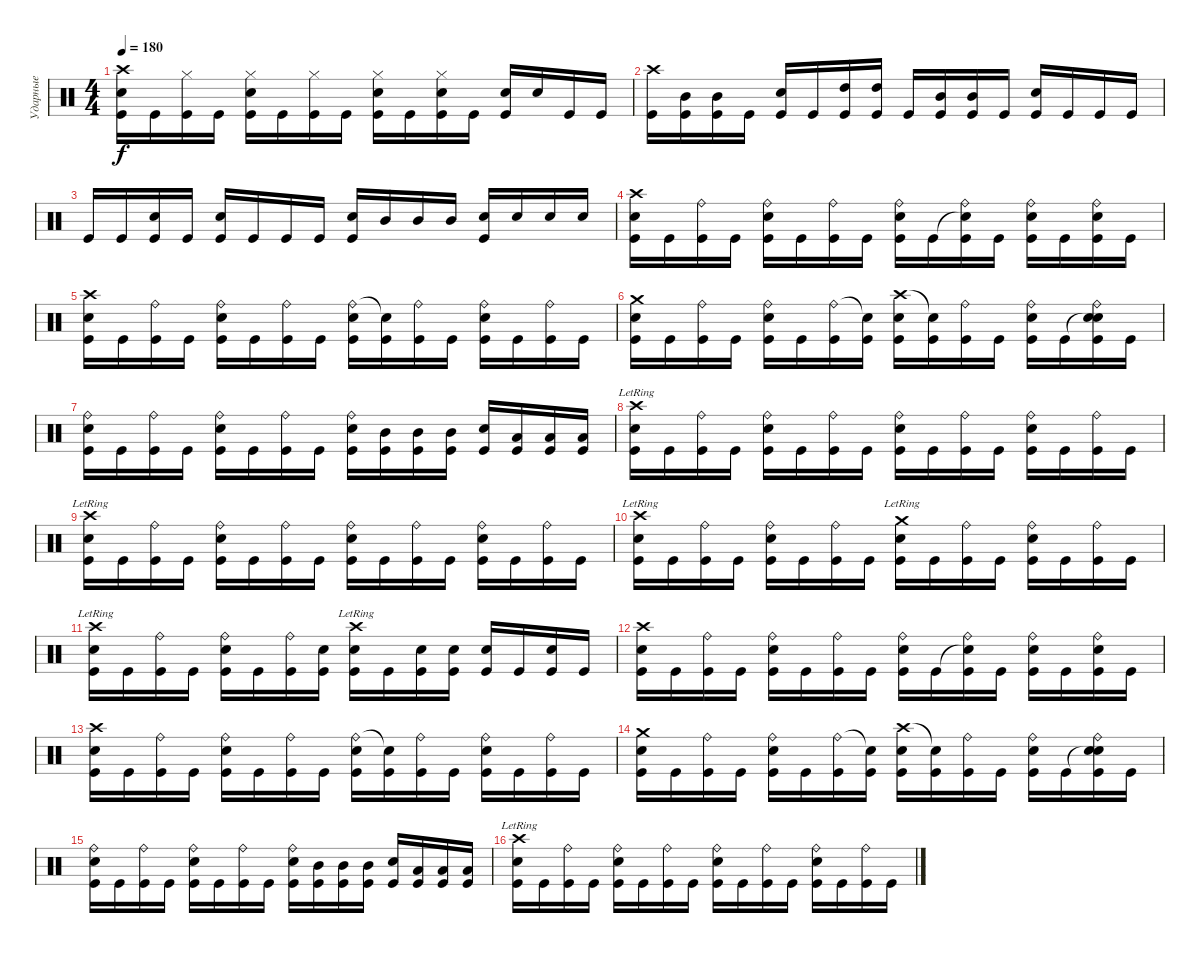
\track ("Ударные" "Ударные") {instrument percussion}
\staff {score}
\articulation defaults
\ts (4 4)
\tempo 180
\clef neutral
\ks c
("Crash high (hit)" "Electric Snare (hit)" "Kick (hit)").16{dy f} "Kick (hit)".16 ("Hi-Hat (closed)" "Kick (hit)").16 "Kick (hit)".16 ("Hi-Hat (closed)" "Electric Snare (hit)" "Kick (hit)").16 "Kick (hit)".16 ("Hi-Hat (closed)" "Kick (hit)").16 "Kick (hit)".16 ("Hi-Hat (closed)" "Electric Snare (hit)" "Kick (hit)").16 "Kick (hit)".16 ("Hi-Hat (closed)" "Electric Snare (hit)" "Kick (hit)").16 "Kick (hit)".16 ("Electric Snare (hit)" "Kick (hit)").16 "Electric Snare (hit)".16 "Kick (hit)".16 "Kick (hit)".16 |
("Crash high (hit)" "Kick (hit)").16 ("Mid Tom (hit)" "Kick (hit)").16 ("Mid Tom (hit)" "Kick (hit)").16 "Kick (hit)".16 ("Electric Snare (hit)" "Kick (hit)").16 "Kick (hit)".16 ("High Tom (hit)" "Kick (hit)").16 ("High Tom (hit)" "Kick (hit)").16 "Kick (hit)".16 ("Mid Tom (hit)" "Kick (hit)").16 ("Mid Tom (hit)" "Kick (hit)").16 "Kick (hit)".16 ("Electric Snare (hit)" "Kick (hit)").16 "Kick (hit)".16 "Kick (hit)".16 "Kick (hit)".16 |
"Kick (hit)".16 "Kick (hit)".16 ("Electric Snare (hit)" "Kick (hit)").16 "Kick (hit)".16 ("Electric Snare (hit)" "Kick (hit)").16 "Kick (hit)".16 "Kick (hit)".16 "Kick (hit)".16 ("Electric Snare (hit)" "Kick (hit)").16 "Mid Tom (hit)".16 "Mid Tom (hit)".16 "Mid Tom (hit)".16 ("Electric Snare (hit)" "Kick (hit)").16 "Electric Snare (hit)".16 "Electric Snare (hit)".16 "Electric Snare (hit)".16 |
("Crash high (hit)" "Electric Snare (hit)" "Kick (hit)").16 "Kick (hit)".16 ("Ride (bell)" "Kick (hit)").16 "Kick (hit)".16 ("Ride (bell)" "Electric Snare (hit)" "Kick (hit)").16 "Kick (hit)".16 ("Ride (bell)" "Kick (hit)").16 "Kick (hit)".16 ("Ride (bell)" "Electric Snare (hit)" "Kick (hit)").16 "Kick (hit)".16 ("Snare (hit)"{t} "Ride (bell)" "Kick (hit)").16 "Kick (hit)".16 ("Ride (bell)" "Electric Snare (hit)" "Kick (hit)").16 "Kick (hit)".16 ("Ride (bell)" "Electric Snare (hit)" "Kick (hit)").16 "Kick (hit)".16 |
("Crash high (hit)" "Electric Snare (hit)" "Kick (hit)").16 "Kick (hit)".16 ("Ride (bell)" "Kick (hit)").16 "Kick (hit)".16 ("Ride (bell)" "Electric Snare (hit)" "Kick (hit)").16 "Kick (hit)".16 ("Ride (bell)" "Kick (hit)").16 "Kick (hit)".16 ("Ride (bell)" "Electric Snare (hit)" "Kick (hit)").16 ("Snare (hit)"{t} "Kick (hit)").16 ("Ride (bell)" "Kick (hit)").16 "Kick (hit)".16 ("Ride (bell)" "Electric Snare (hit)" "Kick (hit)").16 "Kick (hit)".16 ("Ride (bell)" "Kick (hit)").16 "Kick (hit)".16 |
("Crash medium (hit)" "Electric Snare (hit)" "Kick (hit)").16 "Kick (hit)".16 ("Ride (bell)" "Kick (hit)").16 "Kick (hit)".16 ("Ride (bell)" "Electric Snare (hit)" "Kick (hit)").16 "Kick (hit)".16 ("Ride (bell)" "Kick (hit)").16 ("Snare (hit)"{t} "Kick (hit)").16 ("Crash high (hit)" "Electric Snare (hit)" "Kick (hit)").16 ("Snare (hit)"{t} "Kick (hit)").16 ("Ride (bell)" "Kick (hit)").16 "Kick (hit)".16 ("Ride (bell)" "Electric Snare (hit)" "Kick (hit)").16 "Kick (hit)".16 ("Snare (hit)"{t} "Ride (bell)" "Electric Snare (hit)" "Kick (hit)").16 "Kick (hit)".16 |
("Ride (bell)" "Electric Snare (hit)" "Kick (hit)").16 "Kick (hit)".16 ("Ride (bell)" "Kick (hit)").16 "Kick (hit)".16 ("Ride (bell)" "Electric Snare (hit)" "Kick (hit)").16 "Kick (hit)".16 ("Ride (bell)" "Kick (hit)").16 "Kick (hit)".16 ("Ride (bell)" "Electric Snare (hit)" "Kick (hit)").16 ("Mid Tom (hit)" "Kick (hit)").16 ("Mid Tom (hit)" "Kick (hit)").16 ("Mid Tom (hit)" "Kick (hit)").16 ("Electric Snare (hit)" "Kick (hit)").16 ("Low Tom (hit)" "Kick (hit)").16 ("Low Tom (hit)" "Kick (hit)").16 ("Low Tom (hit)" "Kick (hit)").16 |
("Crash high (hit)"{lr} "Electric Snare (hit)" "Kick (hit)").16 "Kick (hit)".16 ("Ride (bell)" "Kick (hit)").16 "Kick (hit)".16 ("Ride (bell)" "Electric Snare (hit)" "Kick (hit)").16 "Kick (hit)".16 ("Ride (bell)" "Kick (hit)").16 "Kick (hit)".16 ("Ride (bell)" "Electric Snare (hit)" "Kick (hit)").16 "Kick (hit)".16 ("Ride (bell)" "Kick (hit)").16 "Kick (hit)".16 ("Ride (bell)" "Electric Snare (hit)" "Kick (hit)").16 "Kick (hit)".16 ("Ride (bell)" "Kick (hit)").16 "Kick (hit)".16 |
("Crash high (hit)"{lr} "Electric Snare (hit)" "Kick (hit)").16 "Kick (hit)".16 ("Ride (bell)" "Kick (hit)").16 "Kick (hit)".16 ("Ride (bell)" "Electric Snare (hit)" "Kick (hit)").16 "Kick (hit)".16 ("Ride (bell)" "Kick (hit)").16 "Kick (hit)".16 ("Ride (bell)" "Electric Snare (hit)" "Kick (hit)").16 "Kick (hit)".16 ("Ride (bell)" "Kick (hit)").16 "Kick (hit)".16 ("Ride (bell)" "Electric Snare (hit)" "Kick (hit)").16 "Kick (hit)".16 ("Ride (bell)" "Kick (hit)").16 "Kick (hit)".16 |
("Crash high (hit)"{lr} "Electric Snare (hit)" "Kick (hit)").16 "Kick (hit)".16 ("Ride (bell)" "Kick (hit)").16 "Kick (hit)".16 ("Ride (bell)" "Electric Snare (hit)" "Kick (hit)").16 "Kick (hit)".16 ("Ride (bell)" "Kick (hit)").16 "Kick (hit)".16 ("Crash medium (hit)"{lr} "Electric Snare (hit)" "Kick (hit)").16 "Kick (hit)".16 ("Ride (bell)" "Kick (hit)").16 "Kick (hit)".16 ("Ride (bell)" "Electric Snare (hit)" "Kick (hit)").16 "Kick (hit)".16 ("Ride (bell)" "Kick (hit)").16 "Kick (hit)".16 |
("Crash high (hit)"{lr} "Electric Snare (hit)" "Kick (hit)").16 "Kick (hit)".16 ("Ride (bell)" "Kick (hit)").16 "Kick (hit)".16 ("Ride (bell)" "Electric Snare (hit)" "Kick (hit)").16 "Kick (hit)".16 ("Ride (bell)" "Kick (hit)").16 ("Electric Snare (hit)" "Kick (hit)").16 ("Crash high (hit)"{lr} "Electric Snare (hit)" "Kick (hit)").16 "Kick (hit)".16 ("Electric Snare (hit)" "Kick (hit)").16 ("Electric Snare (hit)" "Kick (hit)").16 ("Electric Snare (hit)" "Kick (hit)").16 "Kick (hit)".16 ("Electric Snare (hit)" "Kick (hit)").16 "Kick (hit)".16 |
("Crash high (hit)" "Electric Snare (hit)" "Kick (hit)").16 "Kick (hit)".16 ("Ride (bell)" "Kick (hit)").16 "Kick (hit)".16 ("Ride (bell)" "Electric Snare (hit)" "Kick (hit)").16 "Kick (hit)".16 ("Ride (bell)" "Kick (hit)").16 "Kick (hit)".16 ("Ride (bell)" "Electric Snare (hit)" "Kick (hit)").16 "Kick (hit)".16 ("Snare (hit)"{t} "Ride (bell)" "Kick (hit)").16 "Kick (hit)".16 ("Ride (bell)" "Electric Snare (hit)" "Kick (hit)").16 "Kick (hit)".16 ("Ride (bell)" "Electric Snare (hit)" "Kick (hit)").16 "Kick (hit)".16 |
("Crash high (hit)" "Electric Snare (hit)" "Kick (hit)").16 "Kick (hit)".16 ("Ride (bell)" "Kick (hit)").16 "Kick (hit)".16 ("Ride (bell)" "Electric Snare (hit)" "Kick (hit)").16 "Kick (hit)".16 ("Ride (bell)" "Kick (hit)").16 "Kick (hit)".16 ("Ride (bell)" "Electric Snare (hit)" "Kick (hit)").16 ("Snare (hit)"{t} "Kick (hit)").16 ("Ride (bell)" "Kick (hit)").16 "Kick (hit)".16 ("Ride (bell)" "Electric Snare (hit)" "Kick (hit)").16 "Kick (hit)".16 ("Ride (bell)" "Kick (hit)").16 "Kick (hit)".16 |
("Crash medium (hit)" "Electric Snare (hit)" "Kick (hit)").16 "Kick (hit)".16 ("Ride (bell)" "Kick (hit)").16 "Kick (hit)".16 ("Ride (bell)" "Electric Snare (hit)" "Kick (hit)").16 "Kick (hit)".16 ("Ride (bell)" "Kick (hit)").16 ("Snare (hit)"{t} "Kick (hit)").16 ("Crash high (hit)" "Electric Snare (hit)" "Kick (hit)").16 ("Snare (hit)"{t} "Kick (hit)").16 ("Ride (bell)" "Kick (hit)").16 "Kick (hit)".16 ("Ride (bell)" "Electric Snare (hit)" "Kick (hit)").16 "Kick (hit)".16 ("Snare (hit)"{t} "Ride (bell)" "Electric Snare (hit)" "Kick (hit)").16 "Kick (hit)".16 |
("Ride (bell)" "Electric Snare (hit)" "Kick (hit)").16 "Kick (hit)".16 ("Ride (bell)" "Kick (hit)").16 "Kick (hit)".16 ("Ride (bell)" "Electric Snare (hit)" "Kick (hit)").16 "Kick (hit)".16 ("Ride (bell)" "Kick (hit)").16 "Kick (hit)".16 ("Ride (bell)" "Electric Snare (hit)" "Kick (hit)").16 ("Mid Tom (hit)" "Kick (hit)").16 ("Mid Tom (hit)" "Kick (hit)").16 ("Mid Tom (hit)" "Kick (hit)").16 ("Electric Snare (hit)" "Kick (hit)").16 ("Low Tom (hit)" "Kick (hit)").16 ("Low Tom (hit)" "Kick (hit)").16 ("Low Tom (hit)" "Kick (hit)").16 |
("Crash high (hit)"{lr} "Electric Snare (hit)" "Kick (hit)").16 "Kick (hit)".16 ("Ride (bell)" "Kick (hit)").16 "Kick (hit)".16 ("Ride (bell)" "Electric Snare (hit)" "Kick (hit)").16 "Kick (hit)".16 ("Ride (bell)" "Kick (hit)").16 "Kick (hit)".16 ("Ride (bell)" "Electric Snare (hit)" "Kick (hit)").16 "Kick (hit)".16 ("Ride (bell)" "Kick (hit)").16 "Kick (hit)".16 ("Ride (bell)" "Electric Snare (hit)" "Kick (hit)").16 "Kick (hit)".16 ("Ride (bell)" "Kick (hit)").16 "Kick (hit)".16
